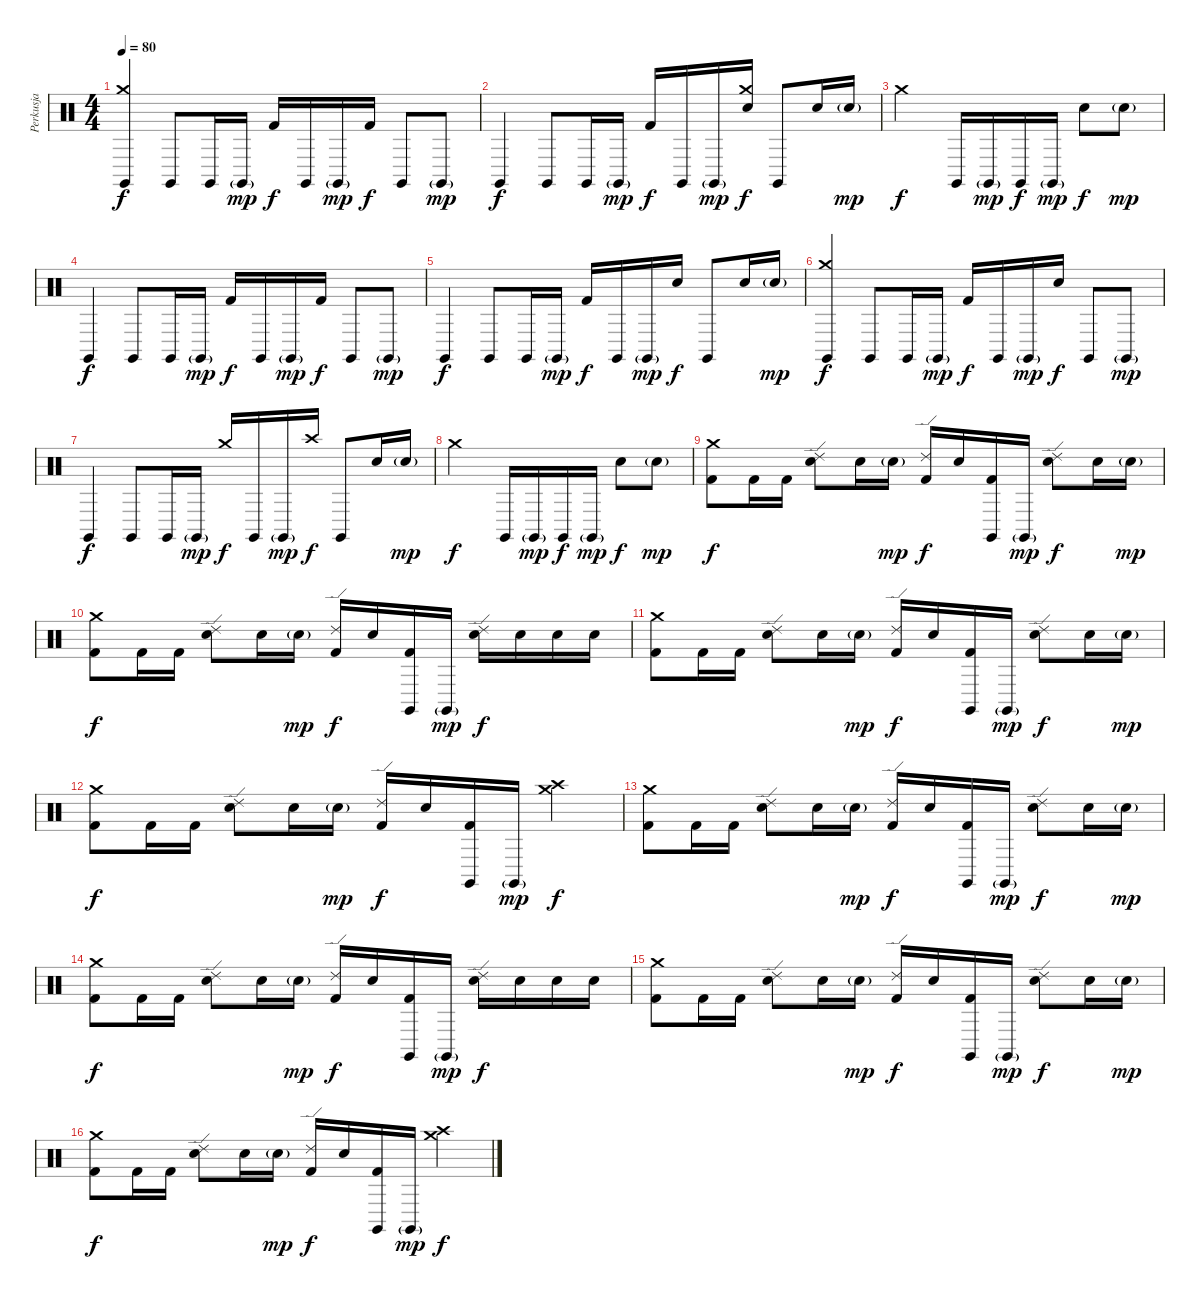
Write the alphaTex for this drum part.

\track ("Perkusja" "Perkusja") {instrument percussion}
\staff {score}
\articulation defaults
\ts (4 4)
\tempo 80
\clef neutral
\ks c
("Crash medium (hit)" "Claves (hit)").4{dy f} "Claves (hit)".8 "Claves (hit)".16 "Claves (hit)"{g}.16{dy mp} "Kick (hit) 2".16{dy f} "Claves (hit)".16 "Claves (hit)"{g}.16{dy mp} "Kick (hit) 2".16{dy f} "Claves (hit)".8 "Claves (hit)"{g}.8{dy mp} |
"Claves (hit)".4{dy f} "Claves (hit)".8 "Claves (hit)".16 "Claves (hit)"{g}.16{dy mp} "Kick (hit) 2".16{dy f} "Claves (hit)".16 "Claves (hit)"{g}.16{dy mp} ("Crash medium (hit)" "Electric Snare (hit)").16{dy f} "Claves (hit)".8 "Snare (hit) 2".16 "Snare (hit) 2"{g}.16{dy mp} |
"Crash medium (hit)".2{dy f} "Claves (hit)".16 "Claves (hit)"{g}.16{dy mp} "Claves (hit)".16{dy f} "Claves (hit)"{g}.16{dy mp} "Snare (hit) 2".8{dy f} "Snare (hit) 2"{g}.8{dy mp} |
"Claves (hit)".4{dy f} "Claves (hit)".8 "Claves (hit)".16 "Claves (hit)"{g}.16{dy mp} "Kick (hit) 2".16{dy f} "Claves (hit)".16 "Claves (hit)"{g}.16{dy mp} "Kick (hit) 2".16{dy f} "Claves (hit)".8 "Claves (hit)"{g}.8{dy mp} |
"Claves (hit)".4{dy f} "Claves (hit)".8 "Claves (hit)".16 "Claves (hit)"{g}.16{dy mp} "Kick (hit) 2".16{dy f} "Claves (hit)".16 "Claves (hit)"{g}.16{dy mp} "Electric Snare (hit)".16{dy f} "Claves (hit)".8 "Snare (hit) 2".16 "Snare (hit) 2"{g}.16{dy mp} |
("Crash medium (hit)" "Claves (hit)").4{dy f} "Claves (hit)".8 "Claves (hit)".16 "Claves (hit)"{g}.16{dy mp} "Kick (hit) 2".16{dy f} "Claves (hit)".16 "Claves (hit)"{g}.16{dy mp} "Snare (hit) 2".16{dy f} "Claves (hit)".8 "Claves (hit)"{g}.8{dy mp} |
"Claves (hit)".4{dy f} "Claves (hit)".8 "Claves (hit)".16 "Claves (hit)"{g}.16{dy mp} "Crash medium (hit)".16{dy f} "Claves (hit)".16 "Claves (hit)"{g}.16{dy mp} "Crash high (hit)".16{dy f} "Claves (hit)".8 "Snare (hit) 2".16 "Snare (hit) 2"{g}.16{dy mp} |
"Crash medium (hit)".2{dy f} "Claves (hit)".16 "Claves (hit)"{g}.16{dy mp} "Claves (hit)".16{dy f} "Claves (hit)"{g}.16{dy mp} "Snare (hit) 2".8{dy f} "Snare (hit) 2"{g}.8{dy mp} |
("Crash medium (hit)" "Kick (hit) 2").8{dy f} "Kick (hit) 2".16 "Kick (hit) 2".16 ("Ride (edge) 2" "Snare (hit) 2").8 "Snare (hit) 2".16 "Snare (hit) 2"{g}.16{dy mp} ("Ride (edge) 2" "Kick (hit) 2").16{dy f} "Snare (hit) 2".16 ("Claves (hit)" "Kick (hit) 2").16 "Claves (hit)"{g}.16{dy mp} ("Ride (edge) 2" "Snare (hit) 2").8{dy f} "Snare (hit) 2".16 "Snare (hit) 2"{g}.16{dy mp} |
("Crash medium (hit)" "Kick (hit) 2").8{dy f} "Kick (hit) 2".16 "Kick (hit) 2".16 ("Ride (edge) 2" "Snare (hit) 2").8 "Snare (hit) 2".16 "Snare (hit) 2"{g}.16{dy mp} ("Ride (edge) 2" "Kick (hit) 2").16{dy f} "Snare (hit) 2".16 ("Claves (hit)" "Kick (hit) 2").16 "Claves (hit)"{g}.16{dy mp} ("Ride (edge) 2" "Snare (hit) 2").16{dy f} "Electric Snare (hit)".16 "Electric Snare (hit)".16 "Electric Snare (hit)".16 |
("Crash medium (hit)" "Kick (hit) 2").8 "Kick (hit) 2".16 "Kick (hit) 2".16 ("Ride (edge) 2" "Snare (hit) 2").8 "Snare (hit) 2".16 "Snare (hit) 2"{g}.16{dy mp} ("Ride (edge) 2" "Kick (hit) 2").16{dy f} "Snare (hit) 2".16 ("Claves (hit)" "Kick (hit) 2").16 "Claves (hit)"{g}.16{dy mp} ("Ride (edge) 2" "Snare (hit) 2").8{dy f} "Snare (hit) 2".16 "Snare (hit) 2"{g}.16{dy mp} |
("Crash medium (hit)" "Kick (hit) 2").8{dy f} "Kick (hit) 2".16 "Kick (hit) 2".16 ("Ride (edge) 2" "Snare (hit) 2").8 "Snare (hit) 2".16 "Snare (hit) 2"{g}.16{dy mp} ("Ride (edge) 2" "Kick (hit) 2").16{dy f} "Snare (hit) 2".16 ("Claves (hit)" "Kick (hit) 2").16 "Claves (hit)"{g}.16{dy mp} ("Crash high (hit)" "Crash medium (hit)").4{dy f} |
("Crash medium (hit)" "Kick (hit) 2").8 "Kick (hit) 2".16 "Kick (hit) 2".16 ("Ride (edge) 2" "Snare (hit) 2").8 "Snare (hit) 2".16 "Snare (hit) 2"{g}.16{dy mp} ("Ride (edge) 2" "Kick (hit) 2").16{dy f} "Snare (hit) 2".16 ("Claves (hit)" "Kick (hit) 2").16 "Claves (hit)"{g}.16{dy mp} ("Ride (edge) 2" "Snare (hit) 2").8{dy f} "Snare (hit) 2".16 "Snare (hit) 2"{g}.16{dy mp} |
("Crash medium (hit)" "Kick (hit) 2").8{dy f} "Kick (hit) 2".16 "Kick (hit) 2".16 ("Ride (edge) 2" "Snare (hit) 2").8 "Snare (hit) 2".16 "Snare (hit) 2"{g}.16{dy mp} ("Ride (edge) 2" "Kick (hit) 2").16{dy f} "Snare (hit) 2".16 ("Claves (hit)" "Kick (hit) 2").16 "Claves (hit)"{g}.16{dy mp} ("Ride (edge) 2" "Snare (hit) 2").16{dy f} "Electric Snare (hit)".16 "Electric Snare (hit)".16 "Electric Snare (hit)".16 |
("Crash medium (hit)" "Kick (hit) 2").8 "Kick (hit) 2".16 "Kick (hit) 2".16 ("Ride (edge) 2" "Snare (hit) 2").8 "Snare (hit) 2".16 "Snare (hit) 2"{g}.16{dy mp} ("Ride (edge) 2" "Kick (hit) 2").16{dy f} "Snare (hit) 2".16 ("Claves (hit)" "Kick (hit) 2").16 "Claves (hit)"{g}.16{dy mp} ("Ride (edge) 2" "Snare (hit) 2").8{dy f} "Snare (hit) 2".16 "Snare (hit) 2"{g}.16{dy mp} |
("Crash medium (hit)" "Kick (hit) 2").8{dy f} "Kick (hit) 2".16 "Kick (hit) 2".16 ("Ride (edge) 2" "Snare (hit) 2").8 "Snare (hit) 2".16 "Snare (hit) 2"{g}.16{dy mp} ("Ride (edge) 2" "Kick (hit) 2").16{dy f} "Snare (hit) 2".16 ("Claves (hit)" "Kick (hit) 2").16 "Claves (hit)"{g}.16{dy mp} ("Crash high (hit)" "Crash medium (hit)").4{dy f}
